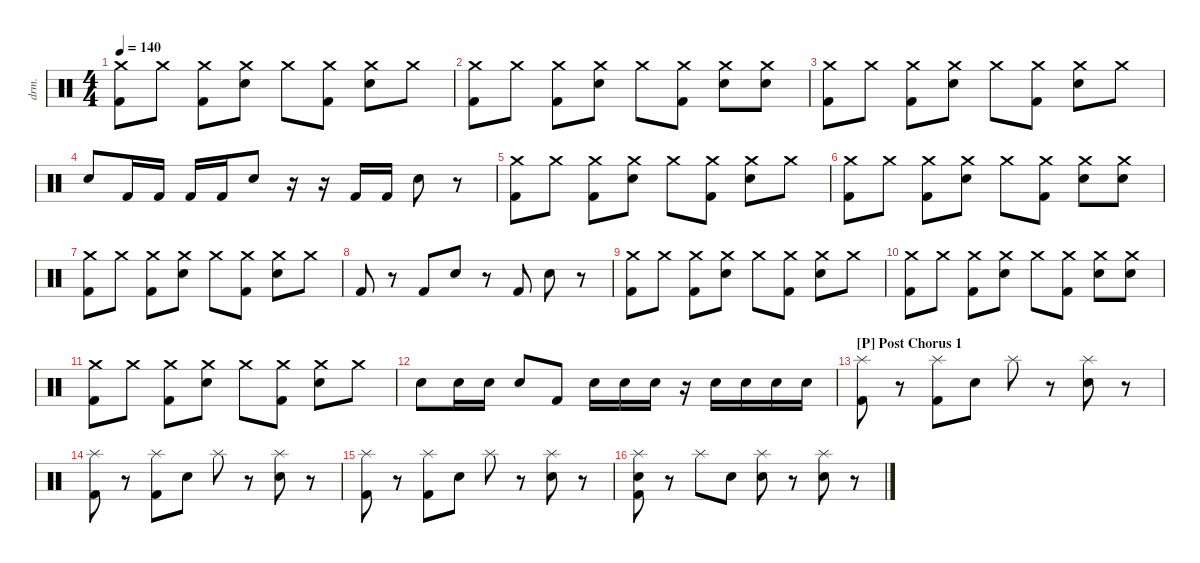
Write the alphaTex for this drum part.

\defaultSystemsLayout 4
\hideDynamics
\bracketExtendMode nobrackets
\otherSystemsTrackNameOrientation horizontal
\track ("Drumkit" "drm.") {instrument percussion}
\staff {score}
\articulation defaults
\ts (4 4)
\tempo 140
\clef neutral
\ks c
("Crash medium (hit)" "Kick (hit) 2").8{dy mf beam Down} "Crash medium (hit)".8{beam Down} ("Crash medium (hit)" "Kick (hit) 2").8{beam Down} ("Snare (hit) 2" "Crash medium (hit)").8{beam Down} "Crash medium (hit)".8{beam Down} ("Crash medium (hit)" "Kick (hit) 2").8{beam Down} ("Crash medium (hit)" "Snare (hit) 2").8{beam Down} "Crash medium (hit)".8{beam Down} |
("Crash medium (hit)" "Kick (hit) 2").8{beam Down} "Crash medium (hit)".8{beam Down} ("Crash medium (hit)" "Kick (hit) 2").8{beam Down} ("Snare (hit) 2" "Crash medium (hit)").8{beam Down} "Crash medium (hit)".8{beam Down} ("Crash medium (hit)" "Kick (hit) 2").8{beam Down} ("Crash medium (hit)" "Snare (hit) 2").8{beam Down} ("Crash medium (hit)" "Snare (hit) 2").8{beam Down} |
("Crash medium (hit)" "Kick (hit) 2").8{beam Down} "Crash medium (hit)".8{beam Down} ("Crash medium (hit)" "Kick (hit) 2").8{beam Down} ("Snare (hit) 2" "Crash medium (hit)").8{beam Down} "Crash medium (hit)".8{beam Down} ("Crash medium (hit)" "Kick (hit) 2").8{beam Down} ("Crash medium (hit)" "Snare (hit) 2").8{beam Down} "Crash medium (hit)".8{beam Down} |
"Snare (hit) 2".8{beam Up} "Kick (hit) 2".16{beam Up} "Kick (hit) 2".16{beam Up} "Kick (hit) 2".16{beam Up} "Kick (hit) 2".16{beam Up} "Snare (hit) 2".8{beam Up} r.16{beam Up} r.16{beam Up} "Kick (hit) 2".16{dy f beam Up} "Kick (hit) 2".16{beam Up} "Snare (hit) 2".8{dy mf beam Down} r.8{beam Down} |
("Crash medium (hit)" "Kick (hit) 2").8{beam Down} "Crash medium (hit)".8{beam Down} ("Crash medium (hit)" "Kick (hit) 2").8{beam Down} ("Snare (hit) 2" "Crash medium (hit)").8{beam Down} "Crash medium (hit)".8{beam Down} ("Crash medium (hit)" "Kick (hit) 2").8{beam Down} ("Crash medium (hit)" "Snare (hit) 2").8{beam Down} "Crash medium (hit)".8{beam Down} |
("Crash medium (hit)" "Kick (hit) 2").8{beam Down} "Crash medium (hit)".8{beam Down} ("Crash medium (hit)" "Kick (hit) 2").8{beam Down} ("Snare (hit) 2" "Crash medium (hit)").8{beam Down} "Crash medium (hit)".8{beam Down} ("Crash medium (hit)" "Kick (hit) 2").8{beam Down} ("Crash medium (hit)" "Snare (hit) 2").8{beam Down} ("Crash medium (hit)" "Snare (hit) 2").8{beam Down} |
("Crash medium (hit)" "Kick (hit) 2").8{beam Down} "Crash medium (hit)".8{beam Down} ("Crash medium (hit)" "Kick (hit) 2").8{beam Down} ("Snare (hit) 2" "Crash medium (hit)").8{beam Down} "Crash medium (hit)".8{beam Down} ("Crash medium (hit)" "Kick (hit) 2").8{beam Down} ("Crash medium (hit)" "Snare (hit) 2").8{beam Down} "Crash medium (hit)".8{beam Down} |
"Kick (hit) 2".8{beam Up} r.8{beam Up} "Kick (hit) 2".8{beam Up} "Snare (hit) 2".8{beam Up} r.8{beam Up} "Kick (hit) 2".8{beam Up} "Snare (hit) 2".8{beam Down} r.8{beam Down} |
("Crash medium (hit)" "Kick (hit) 2").8{beam Down} "Crash medium (hit)".8{beam Down} ("Crash medium (hit)" "Kick (hit) 2").8{beam Down} ("Snare (hit) 2" "Crash medium (hit)").8{beam Down} "Crash medium (hit)".8{beam Down} ("Crash medium (hit)" "Kick (hit) 2").8{beam Down} ("Crash medium (hit)" "Snare (hit) 2").8{beam Down} "Crash medium (hit)".8{beam Down} |
("Crash medium (hit)" "Kick (hit) 2").8{beam Down} "Crash medium (hit)".8{beam Down} ("Crash medium (hit)" "Kick (hit) 2").8{beam Down} ("Snare (hit) 2" "Crash medium (hit)").8{beam Down} "Crash medium (hit)".8{beam Down} ("Crash medium (hit)" "Kick (hit) 2").8{beam Down} ("Crash medium (hit)" "Snare (hit) 2").8{beam Down} ("Crash medium (hit)" "Snare (hit) 2").8{beam Down} |
("Crash medium (hit)" "Kick (hit) 2").8{beam Down} "Crash medium (hit)".8{beam Down} ("Crash medium (hit)" "Kick (hit) 2").8{beam Down} ("Snare (hit) 2" "Crash medium (hit)").8{beam Down} "Crash medium (hit)".8{beam Down} ("Crash medium (hit)" "Kick (hit) 2").8{beam Down} ("Crash medium (hit)" "Snare (hit) 2").8{beam Down} "Crash medium (hit)".8{beam Down} |
"Snare (hit) 2".8{beam Down} "Snare (hit) 2".16{beam Down} "Snare (hit) 2".16{beam Down} "Snare (hit) 2".8{beam Up} "Kick (hit) 2".8{beam Up} "Snare (hit) 2".16{beam Down} "Snare (hit) 2".16{beam Down} "Snare (hit) 2".16{beam Down} r.16{beam Down} "Snare (hit) 2".16{beam Down} "Snare (hit) 2".16{beam Down} "Snare (hit) 2".16{beam Down} "Snare (hit) 2".16{beam Down} |
\section ("P" "Post Chorus 1")
("Kick (hit) 2" "Splash (hit)").8{beam Down} r.8{beam Down} ("Kick (hit) 2" "Splash (hit)").8{beam Down} "Snare (hit) 2".8{beam Down} "Splash (hit)".8{beam Down} r.8{beam Down} ("Snare (hit) 2" "Splash (hit)").8{beam Down} r.8{beam Down} |
("Kick (hit) 2" "Splash (hit)").8{beam Down} r.8{beam Down} ("Kick (hit) 2" "Splash (hit)").8{beam Down} "Snare (hit) 2".8{beam Down} "Splash (hit)".8{beam Down} r.8{beam Down} ("Snare (hit) 2" "Splash (hit)").8{beam Down} r.8{beam Down} |
("Kick (hit) 2" "Splash (hit)").8{beam Down} r.8{beam Down} ("Kick (hit) 2" "Splash (hit)").8{beam Down} "Snare (hit) 2".8{beam Down} "Splash (hit)".8{beam Down} r.8{beam Down} ("Snare (hit) 2" "Splash (hit)").8{beam Down} r.8{beam Down} |
("Splash (hit)" "Snare (hit) 2" "Kick (hit) 2").8{beam Down} r.8{beam Down} "Splash (hit)".8{beam Down} "Snare (hit) 2".8{beam Down} ("Splash (hit)" "Snare (hit) 2").8{beam Down} r.8{beam Down} ("Snare (hit) 2" "Splash (hit)").8{beam Down} r.8{beam Down}
